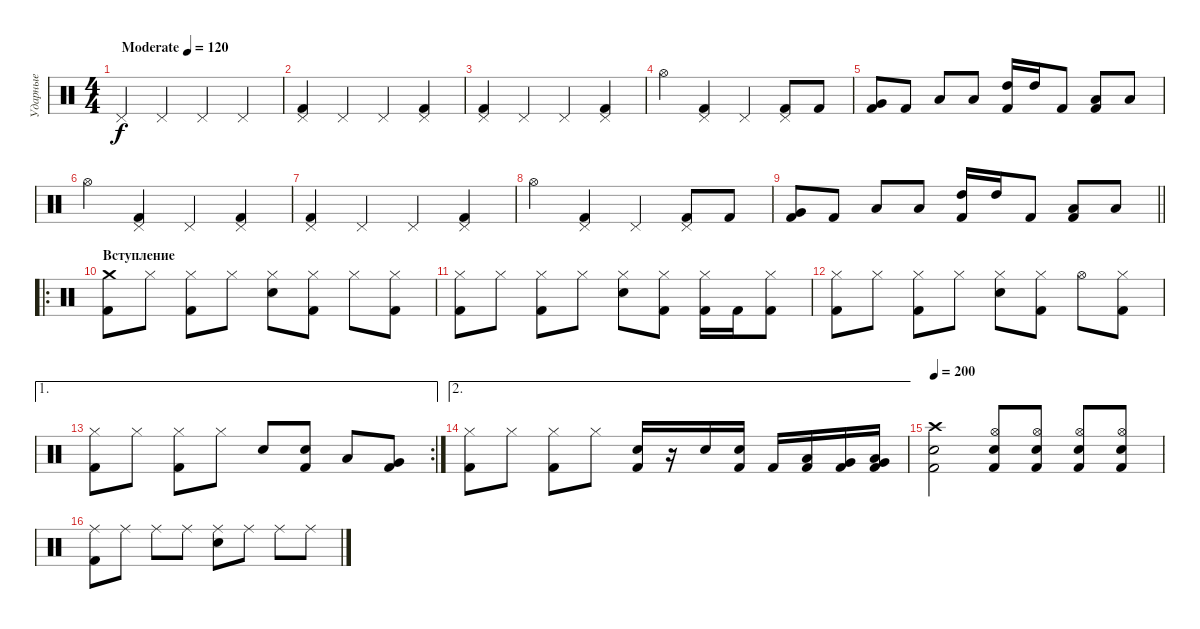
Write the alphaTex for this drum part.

\track ("Ударные" "Ударные") {instrument percussion}
\staff {score}
\articulation defaults
\ts (4 4)
\tempo (120 "Moderate")
\clef neutral
\ks c "Pedal Hi-Hat (hit)".4{dy f} "Pedal Hi-Hat (hit)".4 "Pedal Hi-Hat (hit)".4 "Pedal Hi-Hat (hit)".4
|
("Pedal Hi-Hat (hit)" "Kick (hit) 2").4 "Pedal Hi-Hat (hit)".4 "Pedal Hi-Hat (hit)".4 ("Pedal Hi-Hat (hit)" "Kick (hit) 2").4 |
("Pedal Hi-Hat (hit)" "Kick (hit) 2").4 "Pedal Hi-Hat (hit)".4 "Pedal Hi-Hat (hit)".4 ("Pedal Hi-Hat (hit)" "Kick (hit) 2").4 |
"Hi-Hat (open)".4 ("Pedal Hi-Hat (hit)" "Kick (hit) 2").4 "Pedal Hi-Hat (hit)".4 ("Pedal Hi-Hat (hit)" "Kick (hit) 2").8 "Kick (hit) 2".8 |
("Very Low Tom (hit)" "Kick (hit) 2").8 "Kick (hit) 2".8 "Low Tom (hit)".8 "Low Tom (hit)".8 ("High Tom (hit)" "Kick (hit) 2").16 "High Tom (hit)".16 "Kick (hit) 2".8 ("Low Tom (hit)" "Kick (hit) 2").8 "Low Floor Tom (hit)".8 |
"Hi-Hat (open)".4 ("Pedal Hi-Hat (hit)" "Kick (hit) 2").4 "Pedal Hi-Hat (hit)".4 ("Pedal Hi-Hat (hit)" "Kick (hit) 2").4 |
("Pedal Hi-Hat (hit)" "Kick (hit) 2").4 "Pedal Hi-Hat (hit)".4 "Pedal Hi-Hat (hit)".4 ("Pedal Hi-Hat (hit)" "Kick (hit) 2").4 |
"Hi-Hat (open)".4 ("Pedal Hi-Hat (hit)" "Kick (hit) 2").4 "Pedal Hi-Hat (hit)".4 ("Pedal Hi-Hat (hit)" "Kick (hit) 2").8 "Kick (hit) 2".8 |
\barLineRight lightlight
("Very Low Tom (hit)" "Kick (hit) 2").8 "Kick (hit) 2".8 "Low Tom (hit)".8 "Low Tom (hit)".8 ("High Tom (hit)" "Kick (hit) 2").16 "High Tom (hit)".16 "Kick (hit) 2".8 ("Low Tom (hit)" "Kick (hit) 2").8 "Low Floor Tom (hit)".8 |
\ro
\section ("" "Вступление")
("Crash medium (hit)" "Kick (hit) 2").8 "Hi-Hat (closed)".8 ("Hi-Hat (closed)" "Kick (hit) 2").8 "Hi-Hat (closed)".8 ("Hi-Hat (closed)" "Snare (hit) 2").8 ("Hi-Hat (closed)" "Kick (hit) 2").8 "Hi-Hat (closed)".8 ("Hi-Hat (closed)" "Kick (hit) 2").8 |
("Hi-Hat (closed)" "Kick (hit) 2").8 "Hi-Hat (closed)".8 ("Hi-Hat (closed)" "Kick (hit) 2").8 "Hi-Hat (closed)".8 ("Hi-Hat (closed)" "Snare (hit) 2").8 ("Hi-Hat (closed)" "Kick (hit) 2").8 ("Hi-Hat (closed)" "Kick (hit) 2").16 "Kick (hit) 2".16 ("Hi-Hat (closed)" "Kick (hit) 2").8 |
("Hi-Hat (closed)" "Kick (hit) 2").8 "Hi-Hat (closed)".8 ("Hi-Hat (closed)" "Kick (hit) 2").8 "Hi-Hat (closed)".8 ("Hi-Hat (closed)" "Snare (hit) 2").8 ("Hi-Hat (closed)" "Kick (hit) 2").8 "Hi-Hat (open)".8 ("Hi-Hat (closed)" "Kick (hit) 2").8 |
\ae 1
\rc 2
("Hi-Hat (closed)" "Kick (hit) 2").8 "Hi-Hat (closed)".8 ("Hi-Hat (closed)" "Kick (hit) 2").8 "Hi-Hat (closed)".8 "Snare (hit) 2".8 ("Snare (hit) 2" "Kick (hit) 2").8 "Low Tom (hit)".8 ("Very Low Tom (hit)" "Kick (hit) 2").8 |
\ae 2
("Hi-Hat (closed)" "Kick (hit) 2").8 "Hi-Hat (closed)".8 ("Hi-Hat (closed)" "Kick (hit) 2").8 "Hi-Hat (closed)".8 ("Snare (hit) 2" "Kick (hit) 2").16 r.16 "Snare (hit) 2".16 ("Snare (hit) 2" "Kick (hit) 2").16 "Kick (hit) 2".16 ("Low Tom (hit)" "Kick (hit) 2").16 ("Very Low Tom (hit)" "Kick (hit) 2").16 ("Low Tom (hit)" "Very Low Tom (hit)" "Kick (hit) 2").16 |
\tempo 200
("Crash high (hit)" "Kick (hit) 2" "Snare (hit) 2").2 ("Kick (hit) 2" "Snare (hit) 2" "Hi-Hat (open)").8 ("Hi-Hat (open)" "Kick (hit) 2" "Snare (hit) 2").8 ("Snare (hit) 2" "Kick (hit) 2" "Hi-Hat (open)").8 ("Hi-Hat (open)" "Kick (hit) 2" "Snare (hit) 2").8 |
("Kick (hit) 2" "Ride (middle)").8 "Ride (middle)".8 "Ride (middle)".8 "Ride (middle)".8 ("Snare (hit) 2" "Ride (middle)").8 "Ride (middle)".8 "Ride (middle)".8 "Ride (middle)".8
